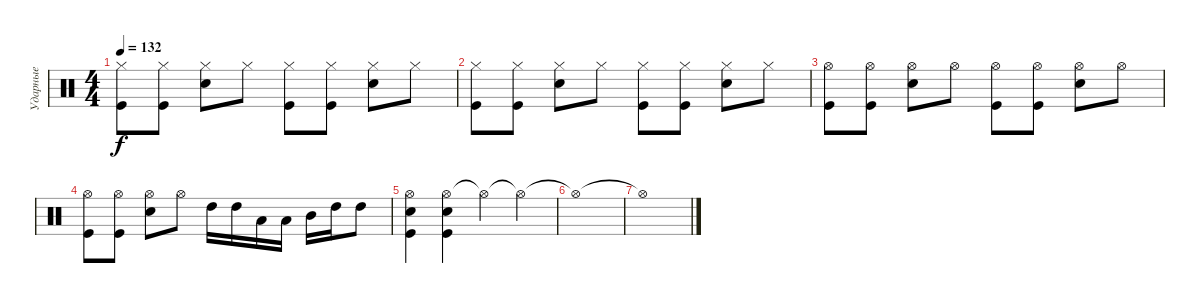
\track ("Ударные" "Ударные") {instrument percussion}
\staff {score}
\articulation defaults
\ts (4 4)
\tempo 132
\clef neutral
\ks c
("Hi-Hat (closed)" "Kick (hit)").8{dy f} ("Hi-Hat (closed)" "Kick (hit)").8 ("Hi-Hat (closed)" "Snare (hit) 2").8 "Hi-Hat (closed)".8 ("Hi-Hat (closed)" "Kick (hit)").8 ("Hi-Hat (closed)" "Kick (hit)").8 ("Hi-Hat (closed)" "Snare (hit) 2").8 "Hi-Hat (closed)".8 |
("Hi-Hat (closed)" "Kick (hit)").8 ("Hi-Hat (closed)" "Kick (hit)").8 ("Hi-Hat (closed)" "Snare (hit) 2").8 "Hi-Hat (closed)".8 ("Hi-Hat (closed)" "Kick (hit)").8 ("Hi-Hat (closed)" "Kick (hit)").8 ("Hi-Hat (closed)" "Snare (hit) 2").8 "Hi-Hat (closed)".8 |
("Hi-Hat (open)" "Kick (hit)").8 ("Hi-Hat (open)" "Kick (hit)").8 ("Hi-Hat (open)" "Snare (hit) 2").8 "Hi-Hat (open)".8 ("Hi-Hat (open)" "Kick (hit)").8 ("Hi-Hat (open)" "Kick (hit)").8 ("Hi-Hat (open)" "Snare (hit) 2").8 "Hi-Hat (open)".8 |
("Hi-Hat (open)" "Kick (hit)").8 ("Hi-Hat (open)" "Kick (hit)").8 ("Hi-Hat (open)" "Snare (hit) 2").8 "Hi-Hat (open)".8 "High Tom (hit)".16 "High Tom (hit)".16 "Low Tom (hit)".16 "Low Tom (hit)".16 "Mid Tom (hit)".16 "High Tom (hit)".16 "High Tom (hit)".8 |
("Hi-Hat (open)" "Snare (hit) 2" "Kick (hit)").4 ("Hi-Hat (open)" "Snare (hit) 2" "Kick (hit)").4 "Hi-Hat (open)"{t}.4 "Hi-Hat (open)"{t}.4 |
"Hi-Hat (open)"{t}.1 |
"Hi-Hat (open)"{t}.1
